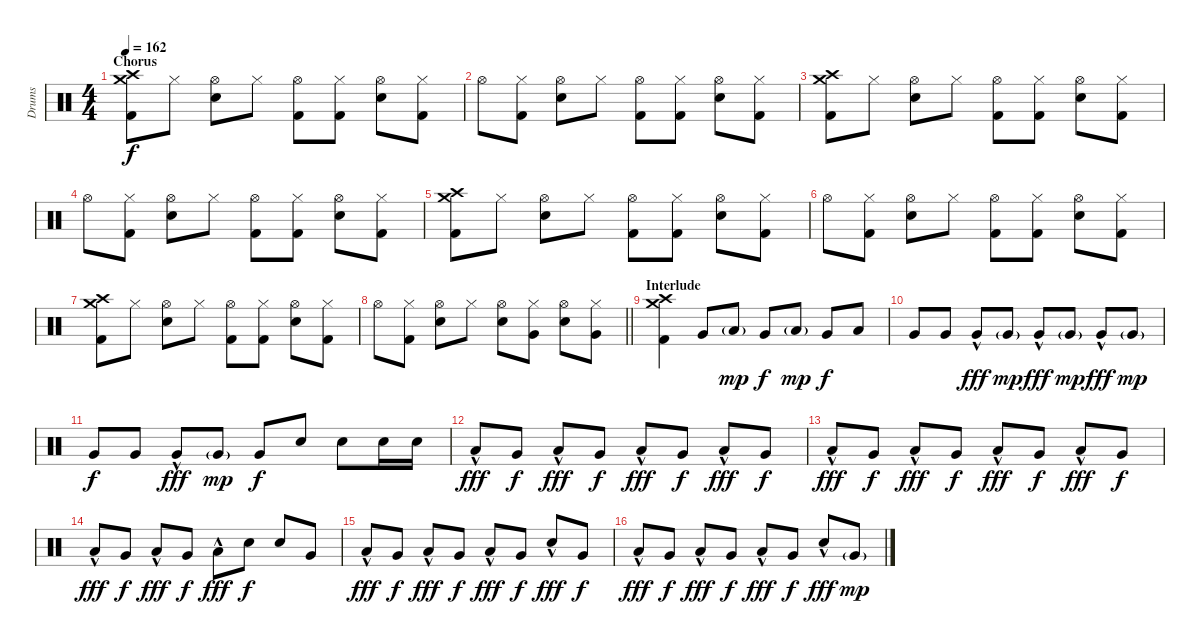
\track ("Drums" "Drums") {instrument percussion}
\staff {score}
\articulation defaults
\ts (4 4)
\section ("" "Chorus")
\tempo 162
\clef neutral
\ks c
("Crash high (hit)" "Crash medium (hit)" "Kick (hit) 2").8{dy f} "Hi-Hat (closed)".8 ("Hi-Hat (open)" "Snare (hit) 2").8 "Hi-Hat (closed)".8 ("Hi-Hat (open)" "Kick (hit) 2").8 ("Hi-Hat (closed)" "Kick (hit) 2").8 ("Hi-Hat (open)" "Snare (hit) 2").8 ("Hi-Hat (closed)" "Kick (hit) 2").8 |
"Hi-Hat (open)".8 ("Hi-Hat (closed)" "Kick (hit) 2").8 ("Hi-Hat (open)" "Snare (hit) 2").8 "Hi-Hat (closed)".8 ("Hi-Hat (open)" "Kick (hit) 2").8 ("Hi-Hat (closed)" "Kick (hit) 2").8 ("Hi-Hat (open)" "Snare (hit) 2").8 ("Hi-Hat (closed)" "Kick (hit) 2").8 |
("Crash high (hit)" "Crash medium (hit)" "Kick (hit) 2").8 "Hi-Hat (closed)".8 ("Hi-Hat (open)" "Snare (hit) 2").8 "Hi-Hat (closed)".8 ("Hi-Hat (open)" "Kick (hit) 2").8 ("Hi-Hat (closed)" "Kick (hit) 2").8 ("Hi-Hat (open)" "Snare (hit) 2").8 ("Hi-Hat (closed)" "Kick (hit) 2").8 |
"Hi-Hat (open)".8 ("Hi-Hat (closed)" "Kick (hit) 2").8 ("Hi-Hat (open)" "Snare (hit) 2").8 "Hi-Hat (closed)".8 ("Hi-Hat (open)" "Kick (hit) 2").8 ("Hi-Hat (closed)" "Kick (hit) 2").8 ("Hi-Hat (open)" "Snare (hit) 2").8 ("Hi-Hat (closed)" "Kick (hit) 2").8 |
("Crash high (hit)" "Crash medium (hit)" "Kick (hit) 2").8 "Hi-Hat (closed)".8 ("Hi-Hat (open)" "Snare (hit) 2").8 "Hi-Hat (closed)".8 ("Hi-Hat (open)" "Kick (hit) 2").8 ("Hi-Hat (closed)" "Kick (hit) 2").8 ("Hi-Hat (open)" "Snare (hit) 2").8 ("Hi-Hat (closed)" "Kick (hit) 2").8 |
"Hi-Hat (open)".8 ("Hi-Hat (closed)" "Kick (hit) 2").8 ("Hi-Hat (open)" "Snare (hit) 2").8 "Hi-Hat (closed)".8 ("Hi-Hat (open)" "Kick (hit) 2").8 ("Hi-Hat (closed)" "Kick (hit) 2").8 ("Hi-Hat (open)" "Snare (hit) 2").8 ("Hi-Hat (closed)" "Kick (hit) 2").8 |
("Crash high (hit)" "Crash medium (hit)" "Kick (hit) 2").8 "Hi-Hat (closed)".8 ("Hi-Hat (open)" "Snare (hit) 2").8 "Hi-Hat (closed)".8 ("Hi-Hat (open)" "Kick (hit) 2").8 ("Hi-Hat (closed)" "Kick (hit) 2").8 ("Hi-Hat (open)" "Snare (hit) 2").8 ("Hi-Hat (closed)" "Kick (hit) 2").8 |
\barLineRight lightlight "Hi-Hat (open)".8
("Hi-Hat (closed)" "Kick (hit) 2").8 ("Hi-Hat (open)" "Snare (hit) 2").8 "Hi-Hat (closed)".8 ("Hi-Hat (open)" "Snare (hit) 2").8 ("Hi-Hat (closed)" "Very Low Tom (hit)").8 ("Hi-Hat (open)" "Snare (hit) 2").8 ("Hi-Hat (closed)" "Very Low Tom (hit)").8 |
\section ("" "Interlude")
("Crash medium (hit)" "Crash high (hit)" "Kick (hit) 2").4 "Very Low Tom (hit)".8 "Low Floor Tom (hit)"{g}.8{dy mp} "Very Low Tom (hit)".8{dy f} "Low Floor Tom (hit)"{g}.8{dy mp} "Very Low Tom (hit)".8{dy f} "Low Tom (hit)".8 |
"Very Low Tom (hit)".8 "Very Low Tom (hit)".8 "Very Low Tom (hit)"{hac}.8{dy fff} "Very Low Tom (hit)"{g}.8{dy mp} "Very Low Tom (hit)"{hac}.8{dy fff} "Very Low Tom (hit)"{g}.8{dy mp} "Very Low Tom (hit)"{hac}.8{dy fff} "Very Low Tom (hit)"{g}.8{dy mp} |
"Very Low Tom (hit)".8{dy f} "Very Low Tom (hit)".8 "Very Low Tom (hit)"{hac}.8{dy fff} "Very Low Tom (hit)"{g}.8{dy mp} "Very Low Tom (hit)".8{dy f} "Snare (hit) 2".8 "Snare (hit) 2".8 "Snare (hit) 2".16 "Snare (hit) 2".16 |
"Low Floor Tom (hit)"{hac}.8{dy fff} "Very Low Tom (hit)".8{dy f} "Low Floor Tom (hit)"{hac}.8{dy fff} "Very Low Tom (hit)".8{dy f} "Low Floor Tom (hit)"{hac}.8{dy fff} "Very Low Tom (hit)".8{dy f} "Low Floor Tom (hit)"{hac}.8{dy fff} "Very Low Tom (hit)".8{dy f} |
"Low Floor Tom (hit)"{hac}.8{dy fff} "Very Low Tom (hit)".8{dy f} "Low Floor Tom (hit)"{hac}.8{dy fff} "Very Low Tom (hit)".8{dy f} "Low Floor Tom (hit)"{hac}.8{dy fff} "Very Low Tom (hit)".8{dy f} "Low Floor Tom (hit)"{hac}.8{dy fff} "Very Low Tom (hit)".8{dy f} |
"Low Floor Tom (hit)"{hac}.8{dy fff} "Very Low Tom (hit)".8{dy f} "Low Floor Tom (hit)"{hac}.8{dy fff} "Very Low Tom (hit)".8{dy f} "Low Floor Tom (hit)"{hac}.8{dy fff} "Snare (hit) 2".8{dy f} "Snare (hit) 2".8 "Very Low Tom (hit)".8 |
"Low Floor Tom (hit)"{hac}.8{dy fff} "Very Low Tom (hit)".8{dy f} "Low Floor Tom (hit)"{hac}.8{dy fff} "Very Low Tom (hit)".8{dy f} "Low Floor Tom (hit)"{hac}.8{dy fff} "Very Low Tom (hit)".8{dy f} "Snare (hit) 2"{hac}.8{dy fff} "Very Low Tom (hit)".8{dy f} |
"Low Floor Tom (hit)"{hac}.8{dy fff} "Very Low Tom (hit)".8{dy f} "Low Floor Tom (hit)"{hac}.8{dy fff} "Very Low Tom (hit)".8{dy f} "Low Floor Tom (hit)"{hac}.8{dy fff} "Very Low Tom (hit)".8{dy f} "Snare (hit) 2"{hac}.8{dy fff} "Very Low Tom (hit)"{g}.8{dy mp}
